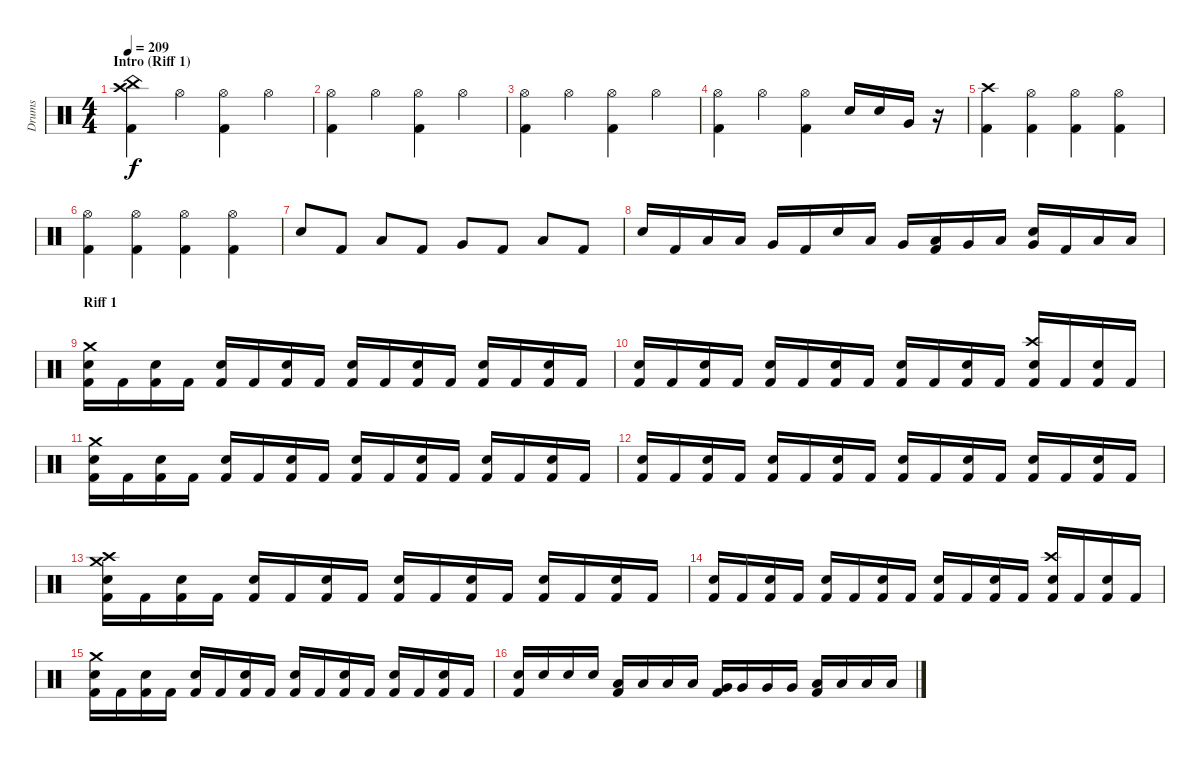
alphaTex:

\track ("Drums" "Drums") {instrument percussion}
\staff {score}
\articulation defaults
\ts (4 4)
\section ("" "Intro (Riff 1)")
\tempo 209
\clef neutral
\ks c
("Kick (hit) 2" "Crash high (hit)" "China (hit)").4{dy f} "Hi-Hat (open)".4 ("Kick (hit) 2" "Hi-Hat (open)").4 "Hi-Hat (open)".4 |
("Kick (hit) 2" "Hi-Hat (open)").4 "Hi-Hat (open)".4 ("Kick (hit) 2" "Hi-Hat (open)").4 "Hi-Hat (open)".4 |
("Kick (hit) 2" "Hi-Hat (open)").4 "Hi-Hat (open)".4 ("Kick (hit) 2" "Hi-Hat (open)").4 "Hi-Hat (open)".4 |
("Kick (hit) 2" "Hi-Hat (open)").4 "Hi-Hat (open)".4 ("Kick (hit) 2" "Hi-Hat (open)").4 "Snare (hit) 2".16 "Snare (hit) 2".16 "Very Low Tom (hit)".16 r.16 |
("Kick (hit) 2" "Crash high (hit)").4 ("Kick (hit) 2" "Hi-Hat (open)").4 ("Kick (hit) 2" "Hi-Hat (open)").4 ("Kick (hit) 2" "Hi-Hat (open)").4 |
("Kick (hit) 2" "Hi-Hat (open)").4 ("Kick (hit) 2" "Hi-Hat (open)").4 ("Kick (hit) 2" "Hi-Hat (open)").4 ("Kick (hit) 2" "Hi-Hat (open)").4 |
"Snare (hit) 2".8 "Kick (hit) 2".8 "Low Tom (hit)".8 "Kick (hit) 2".8 "Very Low Tom (hit)".8 "Kick (hit) 2".8 "Low Floor Tom (hit)".8 "Kick (hit) 2".8 |
"Snare (hit) 2".16 "Kick (hit) 2".16 "Low Floor Tom (hit)".16 "Low Tom (hit)".16 "Very Low Tom (hit)".16 "Kick (hit) 2".16 "Snare (hit) 2".16 "Low Tom (hit)".16 "Very Low Tom (hit)".16 ("Kick (hit) 2" "Low Tom (hit)").16 "Very Low Tom (hit)".16 "Low Floor Tom (hit)".16 ("Snare (hit) 2" "Very Low Tom (hit)").16 "Kick (hit) 2".16 "Low Floor Tom (hit)".16 "Low Tom (hit)".16 |
\section ("" "Riff 1")
("Kick (hit) 2" "Snare (hit) 2" "Crash medium (hit)").16 "Kick (hit) 2".16 ("Kick (hit) 2" "Snare (hit) 2").16 "Kick (hit) 2".16 ("Kick (hit) 2" "Snare (hit) 2").16 "Kick (hit) 2".16 ("Kick (hit) 2" "Snare (hit) 2").16 "Kick (hit) 2".16 ("Kick (hit) 2" "Snare (hit) 2").16 "Kick (hit) 2".16 ("Kick (hit) 2" "Snare (hit) 2").16 "Kick (hit) 2".16 ("Kick (hit) 2" "Snare (hit) 2").16 "Kick (hit) 2".16 ("Kick (hit) 2" "Snare (hit) 2").16 "Kick (hit) 2".16 |
("Kick (hit) 2" "Snare (hit) 2").16 "Kick (hit) 2".16 ("Kick (hit) 2" "Snare (hit) 2").16 "Kick (hit) 2".16 ("Kick (hit) 2" "Snare (hit) 2").16 "Kick (hit) 2".16 ("Kick (hit) 2" "Snare (hit) 2").16 "Kick (hit) 2".16 ("Kick (hit) 2" "Snare (hit) 2").16 "Kick (hit) 2".16 ("Kick (hit) 2" "Snare (hit) 2").16 "Kick (hit) 2".16 ("Kick (hit) 2" "Snare (hit) 2" "Crash high (hit)").16 "Kick (hit) 2".16 ("Kick (hit) 2" "Snare (hit) 2").16 "Kick (hit) 2".16 |
("Kick (hit) 2" "Snare (hit) 2" "Crash medium (hit)").16 "Kick (hit) 2".16 ("Kick (hit) 2" "Snare (hit) 2").16 "Kick (hit) 2".16 ("Kick (hit) 2" "Snare (hit) 2").16 "Kick (hit) 2".16 ("Kick (hit) 2" "Snare (hit) 2").16 "Kick (hit) 2".16 ("Kick (hit) 2" "Snare (hit) 2").16 "Kick (hit) 2".16 ("Kick (hit) 2" "Snare (hit) 2").16 "Kick (hit) 2".16 ("Kick (hit) 2" "Snare (hit) 2").16 "Kick (hit) 2".16 ("Kick (hit) 2" "Snare (hit) 2").16 "Kick (hit) 2".16 |
("Kick (hit) 2" "Snare (hit) 2").16 "Kick (hit) 2".16 ("Kick (hit) 2" "Snare (hit) 2").16 "Kick (hit) 2".16 ("Kick (hit) 2" "Snare (hit) 2").16 "Kick (hit) 2".16 ("Kick (hit) 2" "Snare (hit) 2").16 "Kick (hit) 2".16 ("Kick (hit) 2" "Snare (hit) 2").16 "Kick (hit) 2".16 ("Kick (hit) 2" "Snare (hit) 2").16 "Kick (hit) 2".16 ("Kick (hit) 2" "Snare (hit) 2").16 "Kick (hit) 2".16 ("Kick (hit) 2" "Snare (hit) 2").16 "Kick (hit) 2".16 |
("Kick (hit) 2" "Snare (hit) 2" "Crash high (hit)" "Crash medium (hit)").16 "Kick (hit) 2".16 ("Kick (hit) 2" "Snare (hit) 2").16 "Kick (hit) 2".16 ("Kick (hit) 2" "Snare (hit) 2").16 "Kick (hit) 2".16 ("Kick (hit) 2" "Snare (hit) 2").16 "Kick (hit) 2".16 ("Kick (hit) 2" "Snare (hit) 2").16 "Kick (hit) 2".16 ("Kick (hit) 2" "Snare (hit) 2").16 "Kick (hit) 2".16 ("Kick (hit) 2" "Snare (hit) 2").16 "Kick (hit) 2".16 ("Kick (hit) 2" "Snare (hit) 2").16 "Kick (hit) 2".16 |
("Kick (hit) 2" "Snare (hit) 2").16 "Kick (hit) 2".16 ("Kick (hit) 2" "Snare (hit) 2").16 "Kick (hit) 2".16 ("Kick (hit) 2" "Snare (hit) 2").16 "Kick (hit) 2".16 ("Kick (hit) 2" "Snare (hit) 2").16 "Kick (hit) 2".16 ("Kick (hit) 2" "Snare (hit) 2").16 "Kick (hit) 2".16 ("Kick (hit) 2" "Snare (hit) 2").16 "Kick (hit) 2".16 ("Kick (hit) 2" "Snare (hit) 2" "Crash high (hit)").16 "Kick (hit) 2".16 ("Kick (hit) 2" "Snare (hit) 2").16 "Kick (hit) 2".16 |
("Kick (hit) 2" "Snare (hit) 2" "Crash medium (hit)").16 "Kick (hit) 2".16 ("Kick (hit) 2" "Snare (hit) 2").16 "Kick (hit) 2".16 ("Kick (hit) 2" "Snare (hit) 2").16 "Kick (hit) 2".16 ("Kick (hit) 2" "Snare (hit) 2").16 "Kick (hit) 2".16 ("Kick (hit) 2" "Snare (hit) 2").16 "Kick (hit) 2".16 ("Kick (hit) 2" "Snare (hit) 2").16 "Kick (hit) 2".16 ("Kick (hit) 2" "Snare (hit) 2").16 "Kick (hit) 2".16 ("Kick (hit) 2" "Snare (hit) 2").16 "Kick (hit) 2".16 |
("Kick (hit) 2" "Snare (hit) 2").16 "Snare (hit) 2".16 "Snare (hit) 2".16 "Snare (hit) 2".16 ("Kick (hit) 2" "Low Tom (hit)").16 "Low Tom (hit)".16 "Low Tom (hit)".16 "Low Tom (hit)".16 ("Kick (hit) 2" "Very Low Tom (hit)").16 "Very Low Tom (hit)".16 "Very Low Tom (hit)".16 "Very Low Tom (hit)".16 ("Kick (hit) 2" "Low Floor Tom (hit)").16 "Low Floor Tom (hit)".16 "Low Floor Tom (hit)".16 "Low Floor Tom (hit)".16
